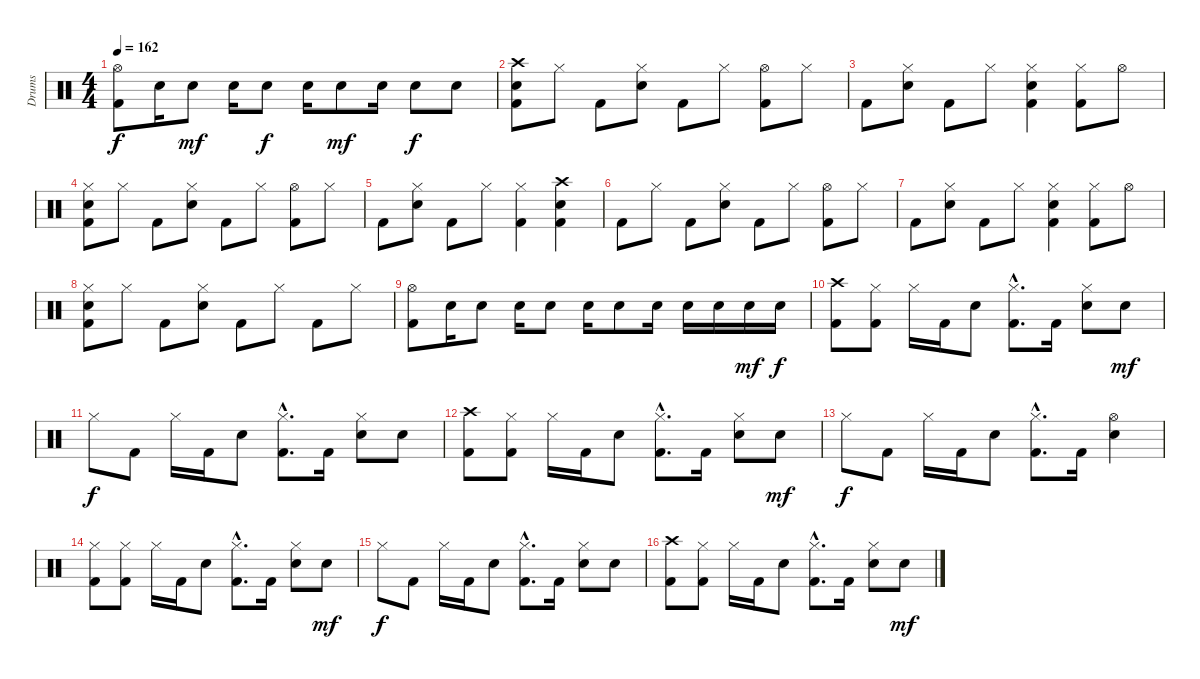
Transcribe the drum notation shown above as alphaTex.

\track ("Drums" "Drums") {instrument percussion}
\staff {score}
\articulation defaults
\ts (4 4)
\tempo 162
\clef neutral
\ks c
("Hi-Hat (open)" "Kick (hit) 2").8{dy f} "Electric Snare (hit)".16 "Electric Snare (hit)".8{dy mf} "Electric Snare (hit)".16 "Electric Snare (hit)".8{dy f} "Electric Snare (hit)".16 "Electric Snare (hit)".8{dy mf} "Electric Snare (hit)".16 "Electric Snare (hit)".8{dy f} "Electric Snare (hit)".8 |
("Crash high (hit)" "Electric Snare (hit)" "Kick (hit) 2").8 "Hi-Hat (closed)".8 "Kick (hit) 2".8 ("Hi-Hat (closed)" "Electric Snare (hit)").8 "Kick (hit) 2".8 "Hi-Hat (closed)".8 ("Hi-Hat (open)" "Kick (hit) 2").8 "Hi-Hat (closed)".8 |
"Kick (hit) 2".8 ("Hi-Hat (closed)" "Electric Snare (hit)").8 "Kick (hit) 2".8 "Hi-Hat (closed)".8 ("Hi-Hat (closed)" "Electric Snare (hit)" "Kick (hit) 2").4 ("Hi-Hat (closed)" "Kick (hit) 2").8 "Hi-Hat (open)".8 |
("Hi-Hat (closed)" "Electric Snare (hit)" "Kick (hit) 2").8 "Hi-Hat (closed)".8 "Kick (hit) 2".8 ("Hi-Hat (closed)" "Electric Snare (hit)").8 "Kick (hit) 2".8 "Hi-Hat (closed)".8 ("Hi-Hat (open)" "Kick (hit) 2").8 "Hi-Hat (closed)".8 |
"Kick (hit) 2".8 ("Hi-Hat (closed)" "Electric Snare (hit)").8 "Kick (hit) 2".8 "Hi-Hat (closed)".8 ("Hi-Hat (closed)" "Kick (hit) 2").4 ("Crash high (hit)" "Electric Snare (hit)" "Kick (hit) 2").4 |
"Kick (hit) 2".8 "Hi-Hat (closed)".8 "Kick (hit) 2".8 ("Hi-Hat (closed)" "Electric Snare (hit)").8 "Kick (hit) 2".8 "Hi-Hat (closed)".8 ("Hi-Hat (open)" "Kick (hit) 2").8 "Hi-Hat (closed)".8 |
"Kick (hit) 2".8 ("Hi-Hat (closed)" "Electric Snare (hit)").8 "Kick (hit) 2".8 "Hi-Hat (closed)".8 ("Hi-Hat (closed)" "Electric Snare (hit)" "Kick (hit) 2").4 ("Hi-Hat (closed)" "Kick (hit) 2").8 "Hi-Hat (open)".8 |
("Hi-Hat (closed)" "Electric Snare (hit)" "Kick (hit) 2").8 "Hi-Hat (closed)".8 "Kick (hit) 2".8 ("Hi-Hat (closed)" "Electric Snare (hit)").8 "Kick (hit) 2".8 "Hi-Hat (closed)".8 "Kick (hit) 2".8 "Hi-Hat (closed)".8 |
("Hi-Hat (open)" "Kick (hit) 2").8 "Electric Snare (hit)".16 "Electric Snare (hit)".8 "Electric Snare (hit)".16 "Electric Snare (hit)".8 "Electric Snare (hit)".16 "Electric Snare (hit)".8 "Electric Snare (hit)".16 "Electric Snare (hit)".16 "Electric Snare (hit)".16 "Electric Snare (hit)".16{dy mf} "Electric Snare (hit)".16{dy f} |
("Crash high (hit)" "Kick (hit) 2").8 ("Hi-Hat (closed)" "Kick (hit) 2").8 "Hi-Hat (closed)".16 "Kick (hit) 2".16 "Electric Snare (hit)".8 ("Hi-Hat (closed)"{hac} "Kick (hit) 2"{hac}).8{d} "Kick (hit) 2".16 ("Hi-Hat (closed)" "Electric Snare (hit)").8 "Electric Snare (hit)".8{dy mf} |
"Hi-Hat (closed)".8{dy f} "Kick (hit) 2".8 "Hi-Hat (closed)".16 "Kick (hit) 2".16 "Electric Snare (hit)".8 ("Hi-Hat (closed)"{hac} "Kick (hit) 2"{hac}).8{d} "Kick (hit) 2".16 ("Hi-Hat (closed)" "Electric Snare (hit)").8 "Electric Snare (hit)".8 |
("Crash high (hit)" "Kick (hit) 2").8 ("Hi-Hat (closed)" "Kick (hit) 2").8 "Hi-Hat (closed)".16 "Kick (hit) 2".16 "Electric Snare (hit)".8 ("Hi-Hat (closed)"{hac} "Kick (hit) 2"{hac}).8{d} "Kick (hit) 2".16 ("Hi-Hat (closed)" "Electric Snare (hit)").8 "Electric Snare (hit)".8{dy mf} |
"Hi-Hat (closed)".8{dy f} "Kick (hit) 2".8 "Hi-Hat (closed)".16 "Kick (hit) 2".16 "Electric Snare (hit)".8 ("Hi-Hat (closed)"{hac} "Kick (hit) 2"{hac}).8{d} "Kick (hit) 2".16 ("Hi-Hat (open)" "Electric Snare (hit)").4 |
("Hi-Hat (closed)" "Kick (hit) 2").8 ("Hi-Hat (closed)" "Kick (hit) 2").8 "Hi-Hat (closed)".16 "Kick (hit) 2".16 "Electric Snare (hit)".8 ("Hi-Hat (closed)"{hac} "Kick (hit) 2"{hac}).8{d} "Kick (hit) 2".16 ("Hi-Hat (closed)" "Electric Snare (hit)").8 "Electric Snare (hit)".8{dy mf} |
"Hi-Hat (closed)".8{dy f} "Kick (hit) 2".8 "Hi-Hat (closed)".16 "Kick (hit) 2".16 "Electric Snare (hit)".8 ("Hi-Hat (closed)"{hac} "Kick (hit) 2"{hac}).8{d} "Kick (hit) 2".16 ("Hi-Hat (closed)" "Electric Snare (hit)").8 "Electric Snare (hit)".8 |
("Crash high (hit)" "Kick (hit) 2").8 ("Hi-Hat (closed)" "Kick (hit) 2").8 "Hi-Hat (closed)".16 "Kick (hit) 2".16 "Electric Snare (hit)".8 ("Hi-Hat (closed)"{hac} "Kick (hit) 2"{hac}).8{d} "Kick (hit) 2".16 ("Hi-Hat (closed)" "Electric Snare (hit)").8 "Electric Snare (hit)".8{dy mf}
